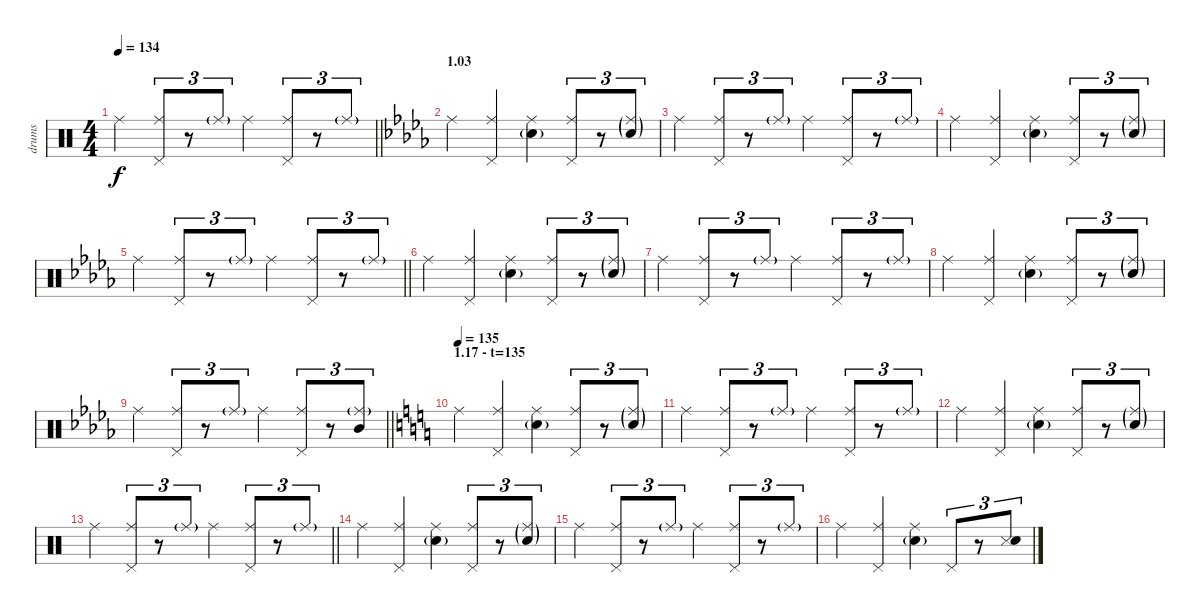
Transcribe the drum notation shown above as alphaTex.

\track ("drums" "drums") {instrument percussion}
\staff {score}
\articulation defaults
\ts (4 4)
\tempo 134
\clef neutral
\barLineRight lightlight
\ks c "Ride (middle)".4{dy f}
("Ride (middle)" "Pedal Hi-Hat (hit)").8{tu (3 2)} r.8{tu (3 2)} "Ride (middle)"{g}.8{tu (3 2)} "Ride (middle)".4 ("Ride (middle)" "Pedal Hi-Hat (hit)").8{tu (3 2)} r.8{tu (3 2)} "Ride (middle)"{g}.8{tu (3 2)} |
\section ("" "1.03")
\ks db "Ride (middle)".4
("Ride (middle)" "Pedal Hi-Hat (hit)").4 ("Ride (middle)" "Electric Snare (hit)"{g}).4 ("Ride (middle)" "Pedal Hi-Hat (hit)").8{tu (3 2)} r.8{tu (3 2)} ("Ride (middle)"{g} "Electric Snare (hit)"{g}).8{tu (3 2)} |
"Ride (middle)".4 ("Ride (middle)" "Pedal Hi-Hat (hit)").8{tu (3 2)} r.8{tu (3 2)} "Ride (middle)"{g}.8{tu (3 2)} "Ride (middle)".4 ("Ride (middle)" "Pedal Hi-Hat (hit)").8{tu (3 2)} r.8{tu (3 2)} "Ride (middle)"{g}.8{tu (3 2)} |
"Ride (middle)".4 ("Ride (middle)" "Pedal Hi-Hat (hit)").4 ("Ride (middle)" "Electric Snare (hit)"{g}).4 ("Ride (middle)" "Pedal Hi-Hat (hit)").8{tu (3 2)} r.8{tu (3 2)} ("Ride (middle)"{g} "Electric Snare (hit)"{g}).8{tu (3 2)} |
\barLineRight lightlight "Ride (middle)".4
("Ride (middle)" "Pedal Hi-Hat (hit)").8{tu (3 2)} r.8{tu (3 2)} "Ride (middle)"{g}.8{tu (3 2)} "Ride (middle)".4 ("Ride (middle)" "Pedal Hi-Hat (hit)").8{tu (3 2)} r.8{tu (3 2)} "Ride (middle)"{g}.8{tu (3 2)} |
"Ride (middle)".4 ("Ride (middle)" "Pedal Hi-Hat (hit)").4 ("Ride (middle)" "Electric Snare (hit)"{g}).4 ("Ride (middle)" "Pedal Hi-Hat (hit)").8{tu (3 2)} r.8{tu (3 2)} ("Ride (middle)"{g} "Electric Snare (hit)"{g}).8{tu (3 2)} |
"Ride (middle)".4 ("Ride (middle)" "Pedal Hi-Hat (hit)").8{tu (3 2)} r.8{tu (3 2)} "Ride (middle)"{g}.8{tu (3 2)} "Ride (middle)".4 ("Ride (middle)" "Pedal Hi-Hat (hit)").8{tu (3 2)} r.8{tu (3 2)} "Ride (middle)"{g}.8{tu (3 2)} |
"Ride (middle)".4 ("Ride (middle)" "Pedal Hi-Hat (hit)").4 ("Ride (middle)" "Electric Snare (hit)"{g}).4 ("Ride (middle)" "Pedal Hi-Hat (hit)").8{tu (3 2)} r.8{tu (3 2)} ("Ride (middle)"{g} "Electric Snare (hit)"{g}).8{tu (3 2)} |
\barLineRight lightlight "Ride (middle)".4
("Ride (middle)" "Pedal Hi-Hat (hit)").8{tu (3 2)} r.8{tu (3 2)} "Ride (middle)"{g}.8{tu (3 2)} "Ride (middle)".4 ("Ride (middle)" "Pedal Hi-Hat (hit)").8{tu (3 2)} r.8{tu (3 2)} ("Ride (middle)"{g} "Mid Tom (hit)").8{tu (3 2)} |
\section ("" "1.17 - t=135")
\tempo 135
\ks c "Ride (middle)".4
("Ride (middle)" "Pedal Hi-Hat (hit)").4 ("Ride (middle)" "Electric Snare (hit)"{g}).4 ("Ride (middle)" "Pedal Hi-Hat (hit)").8{tu (3 2)} r.8{tu (3 2)} ("Ride (middle)"{g} "Electric Snare (hit)"{g}).8{tu (3 2)} |
"Ride (middle)".4 ("Ride (middle)" "Pedal Hi-Hat (hit)").8{tu (3 2)} r.8{tu (3 2)} "Ride (middle)"{g}.8{tu (3 2)} "Ride (middle)".4 ("Ride (middle)" "Pedal Hi-Hat (hit)").8{tu (3 2)} r.8{tu (3 2)} "Ride (middle)"{g}.8{tu (3 2)} |
"Ride (middle)".4 ("Ride (middle)" "Pedal Hi-Hat (hit)").4 ("Ride (middle)" "Electric Snare (hit)"{g}).4 ("Ride (middle)" "Pedal Hi-Hat (hit)").8{tu (3 2)} r.8{tu (3 2)} ("Ride (middle)"{g} "Electric Snare (hit)"{g}).8{tu (3 2)} |
\barLineRight lightlight "Ride (middle)".4
("Ride (middle)" "Pedal Hi-Hat (hit)").8{tu (3 2)} r.8{tu (3 2)} "Ride (middle)"{g}.8{tu (3 2)} "Ride (middle)".4 ("Ride (middle)" "Pedal Hi-Hat (hit)").8{tu (3 2)} r.8{tu (3 2)} "Ride (middle)"{g}.8{tu (3 2)} |
"Ride (middle)".4 ("Ride (middle)" "Pedal Hi-Hat (hit)").4 ("Ride (middle)" "Electric Snare (hit)"{g}).4 ("Ride (middle)" "Pedal Hi-Hat (hit)").8{tu (3 2)} r.8{tu (3 2)} ("Ride (middle)"{g} "Electric Snare (hit)"{g}).8{tu (3 2)} |
"Ride (middle)".4 ("Ride (middle)" "Pedal Hi-Hat (hit)").8{tu (3 2)} r.8{tu (3 2)} "Ride (middle)"{g}.8{tu (3 2)} "Ride (middle)".4 ("Ride (middle)" "Pedal Hi-Hat (hit)").8{tu (3 2)} r.8{tu (3 2)} "Ride (middle)"{g}.8{tu (3 2)} |
"Ride (middle)".4 ("Ride (middle)" "Pedal Hi-Hat (hit)").4 ("Ride (middle)" "Electric Snare (hit)"{g}).4 "Pedal Hi-Hat (hit)".8{tu (3 2)} r.8{tu (3 2)} ("Snare (side stick) 3" "Electric Snare (hit)").8{tu (3 2)}
